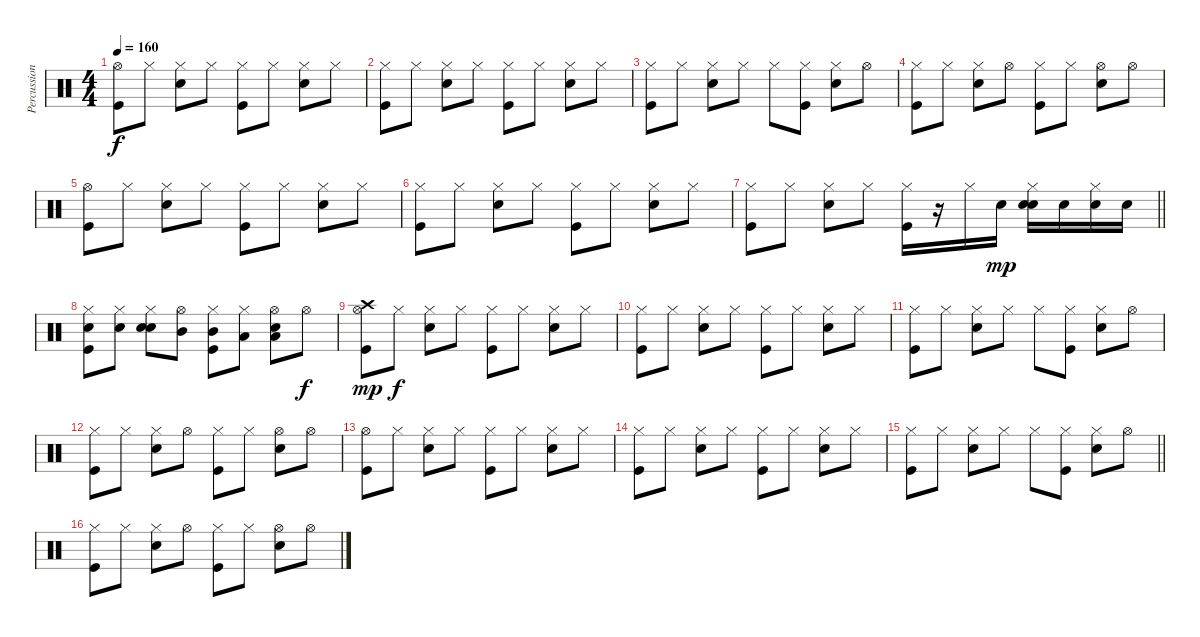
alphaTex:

\track ("Percussioni" "Percussion") {instrument percussion}
\staff {score}
\articulation defaults
\ts (4 4)
\tempo 160
\clef neutral
\ks c
("Hi-Hat (open)" "Kick (hit)").8{dy f} "Hi-Hat (closed)".8 ("Hi-Hat (closed)" "Snare (hit) 2").8 "Hi-Hat (closed)".8 ("Hi-Hat (closed)" "Kick (hit)").8 "Hi-Hat (closed)".8 ("Hi-Hat (closed)" "Snare (hit) 2").8 "Hi-Hat (closed)".8 |
("Hi-Hat (closed)" "Kick (hit)").8 "Hi-Hat (closed)".8 ("Hi-Hat (closed)" "Snare (hit) 2").8 "Hi-Hat (closed)".8 ("Hi-Hat (closed)" "Kick (hit)").8 "Hi-Hat (closed)".8 ("Hi-Hat (closed)" "Snare (hit) 2").8 "Hi-Hat (closed)".8 |
("Hi-Hat (closed)" "Kick (hit)").8 "Hi-Hat (closed)".8 ("Hi-Hat (closed)" "Snare (hit) 2").8 "Hi-Hat (closed)".8 "Hi-Hat (closed)".8 ("Hi-Hat (closed)" "Kick (hit)").8 ("Hi-Hat (closed)" "Snare (hit) 2").8 "Hi-Hat (open)".8 |
("Hi-Hat (closed)" "Kick (hit)").8 "Hi-Hat (closed)".8 ("Hi-Hat (closed)" "Snare (hit) 2").8 "Hi-Hat (open)".8 ("Hi-Hat (closed)" "Kick (hit)").8 "Hi-Hat (closed)".8 ("Hi-Hat (open)" "Snare (hit) 2").8 "Hi-Hat (open)".8 |
("Hi-Hat (open)" "Kick (hit)").8 "Hi-Hat (closed)".8 ("Hi-Hat (closed)" "Snare (hit) 2").8 "Hi-Hat (closed)".8 ("Hi-Hat (closed)" "Kick (hit)").8 "Hi-Hat (closed)".8 ("Hi-Hat (closed)" "Snare (hit) 2").8 "Hi-Hat (closed)".8 |
("Hi-Hat (closed)" "Kick (hit)").8 "Hi-Hat (closed)".8 ("Hi-Hat (closed)" "Snare (hit) 2").8 "Hi-Hat (closed)".8 ("Hi-Hat (closed)" "Kick (hit)").8 "Hi-Hat (closed)".8 ("Hi-Hat (closed)" "Snare (hit) 2").8 "Hi-Hat (closed)".8 |
\barLineRight lightlight
("Hi-Hat (closed)" "Kick (hit)").8 "Hi-Hat (closed)".8 ("Hi-Hat (closed)" "Snare (hit) 2").8 "Hi-Hat (closed)".8 ("Hi-Hat (closed)" "Kick (hit)").16 r.16 "Hi-Hat (closed)".16 "Snare (hit) 2".16{dy mp} ("Snare (hit) 2" "Hi-Hat (closed)" "Snare (hit) 2").16 "Snare (hit) 2".16 ("Snare (hit) 2" "Hi-Hat (closed)").16 "Snare (hit) 2".16 |
("Snare (hit) 2" "Hi-Hat (closed)" "Kick (hit)").8 ("Snare (hit) 2" "Hi-Hat (closed)").8 ("Snare (hit) 2" "Hi-Hat (closed)" "Snare (hit) 2").8 ("Mid Tom (hit)" "Hi-Hat (open)").8 ("Mid Tom (hit)" "Hi-Hat (closed)" "Kick (hit)").8 ("Low Tom (hit)" "Hi-Hat (closed)").8 ("Low Tom (hit)" "Hi-Hat (open)" "Snare (hit) 2").8 "Hi-Hat (open)".8{dy f} |
("Crash high (hit)" "Hi-Hat (open)" "Kick (hit)").8{dy mp} "Hi-Hat (closed)".8{dy f} ("Hi-Hat (closed)" "Snare (hit) 2").8 "Hi-Hat (closed)".8 ("Hi-Hat (closed)" "Kick (hit)").8 "Hi-Hat (closed)".8 ("Hi-Hat (closed)" "Snare (hit) 2").8 "Hi-Hat (closed)".8 |
("Hi-Hat (closed)" "Kick (hit)").8 "Hi-Hat (closed)".8 ("Hi-Hat (closed)" "Snare (hit) 2").8 "Hi-Hat (closed)".8 ("Hi-Hat (closed)" "Kick (hit)").8 "Hi-Hat (closed)".8 ("Hi-Hat (closed)" "Snare (hit) 2").8 "Hi-Hat (closed)".8 |
("Hi-Hat (closed)" "Kick (hit)").8 "Hi-Hat (closed)".8 ("Hi-Hat (closed)" "Snare (hit) 2").8 "Hi-Hat (closed)".8 "Hi-Hat (closed)".8 ("Hi-Hat (closed)" "Kick (hit)").8 ("Hi-Hat (closed)" "Snare (hit) 2").8 "Hi-Hat (open)".8 |
("Hi-Hat (closed)" "Kick (hit)").8 "Hi-Hat (closed)".8 ("Hi-Hat (closed)" "Snare (hit) 2").8 "Hi-Hat (open)".8 ("Hi-Hat (closed)" "Kick (hit)").8 "Hi-Hat (closed)".8 ("Hi-Hat (open)" "Snare (hit) 2").8 "Hi-Hat (open)".8 |
("Hi-Hat (open)" "Kick (hit)").8 "Hi-Hat (closed)".8 ("Hi-Hat (closed)" "Snare (hit) 2").8 "Hi-Hat (closed)".8 ("Hi-Hat (closed)" "Kick (hit)").8 "Hi-Hat (closed)".8 ("Hi-Hat (closed)" "Snare (hit) 2").8 "Hi-Hat (closed)".8 |
("Hi-Hat (closed)" "Kick (hit)").8 "Hi-Hat (closed)".8 ("Hi-Hat (closed)" "Snare (hit) 2").8 "Hi-Hat (closed)".8 ("Hi-Hat (closed)" "Kick (hit)").8 "Hi-Hat (closed)".8 ("Hi-Hat (closed)" "Snare (hit) 2").8 "Hi-Hat (closed)".8 |
\barLineRight lightlight
("Hi-Hat (closed)" "Kick (hit)").8 "Hi-Hat (closed)".8 ("Hi-Hat (closed)" "Snare (hit) 2").8 "Hi-Hat (closed)".8 "Hi-Hat (closed)".8 ("Hi-Hat (closed)" "Kick (hit)").8 ("Hi-Hat (closed)" "Snare (hit) 2").8 "Hi-Hat (open)".8 |
("Hi-Hat (closed)" "Kick (hit)").8 "Hi-Hat (closed)".8 ("Hi-Hat (closed)" "Snare (hit) 2").8 "Hi-Hat (open)".8 ("Hi-Hat (closed)" "Kick (hit)").8 "Hi-Hat (closed)".8 ("Hi-Hat (open)" "Snare (hit) 2").8 "Hi-Hat (open)".8
